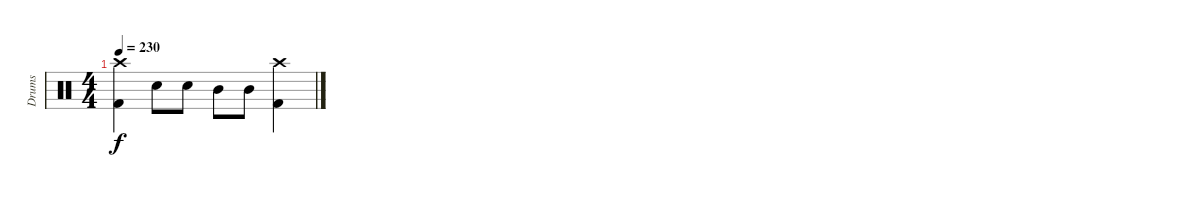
\track ("Drums" "Drums") {instrument percussion}
\staff {score}
\articulation defaults
\ts (4 4)
\tempo 230
\clef neutral
\ks c
("Crash high (hit)" "Kick (hit) 2").4{dy f} "Snare (hit) 2".8 "Snare (hit) 2".8 "Mid Tom (hit)".8 "Mid Tom (hit)".8 ("Crash high (hit)" "Kick (hit) 2").4
